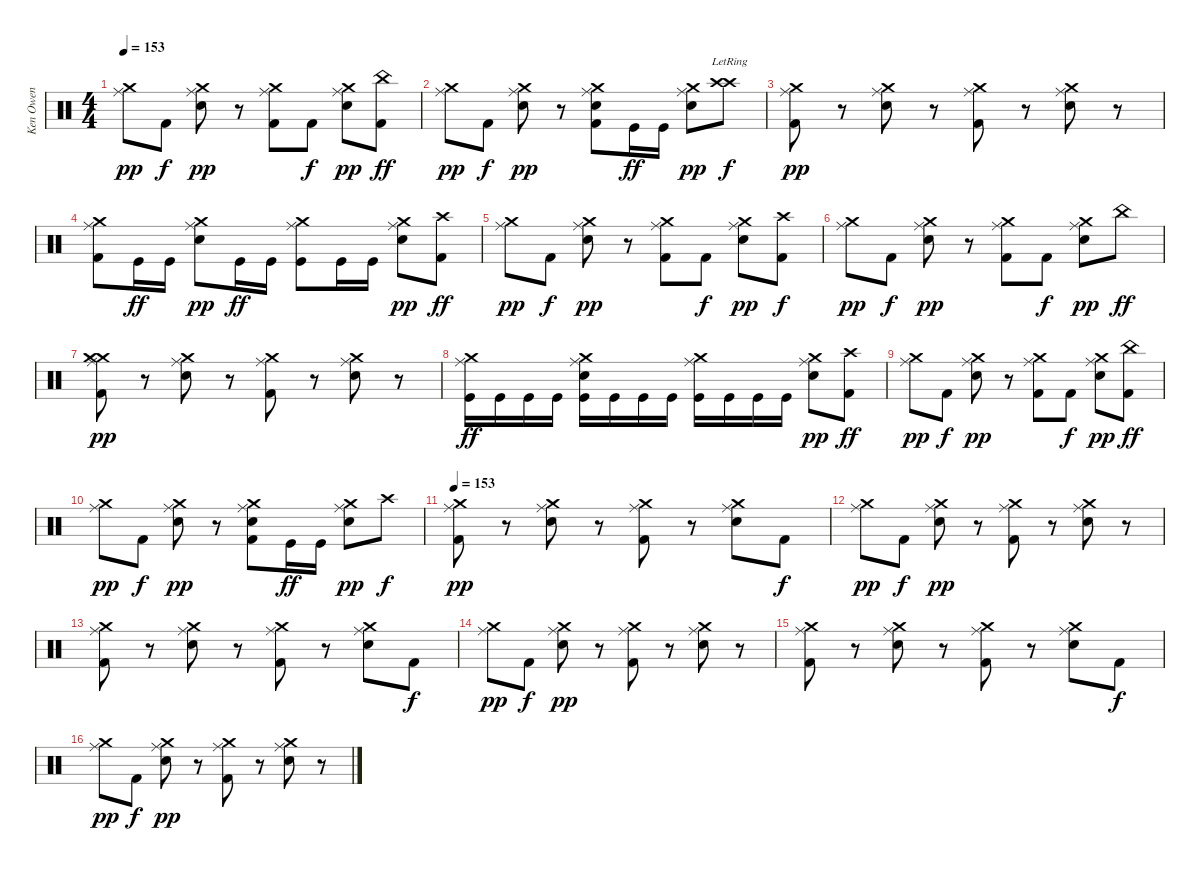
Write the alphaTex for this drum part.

\track ("Ken Owen" "Ken Owen") {instrument percussion}
\staff {score}
\articulation defaults
\ts (4 4)
\tempo 153
\clef neutral
\ks c
("Crash medium (hit)" "Ride (middle)").8{dy pp} "Kick (hit) 2".8{dy f} ("Crash medium (hit)" "Ride (middle)" "Electric Snare (hit)").8{dy pp} r.8 ("Crash medium (hit)" "Ride (middle)" "Kick (hit) 2").8 "Kick (hit) 2".8{dy f} ("Crash medium (hit)" "Ride (middle)" "Electric Snare (hit)").8{dy pp} ("Kick (hit) 2" "China (hit)").8{dy ff} |
("Crash medium (hit)" "Ride (middle)").8{dy pp} "Kick (hit) 2".8{dy f} ("Crash medium (hit)" "Ride (middle)" "Electric Snare (hit)").8{dy pp} r.8 ("Crash medium (hit)" "Ride (middle)" "Kick (hit) 2" "Electric Snare (hit)").8 "Kick (hit)".16{dy ff} "Kick (hit)".16 ("Crash medium (hit)" "Ride (middle)" "Electric Snare (hit)").8{dy pp} ("Crash high (hit)"{lr} "Crash high (hit)"{lr}).8{dy f} |
("Crash medium (hit)" "Ride (middle)" "Kick (hit) 2").8{dy pp} r.8 ("Crash medium (hit)" "Ride (middle)" "Electric Snare (hit)").8 r.8 ("Crash medium (hit)" "Ride (middle)" "Kick (hit) 2").8 r.8 ("Crash medium (hit)" "Ride (middle)" "Electric Snare (hit)").8 r.8 |
("Crash medium (hit)" "Ride (middle)" "Kick (hit) 2").8 "Kick (hit)".16{dy ff} "Kick (hit)".16 ("Crash medium (hit)" "Ride (middle)" "Electric Snare (hit)").8{dy pp} "Kick (hit)".16{dy ff} "Kick (hit)".16 ("Crash medium (hit)" "Ride (middle)" "Kick (hit)").8 "Kick (hit)".16 "Kick (hit)".16 ("Crash medium (hit)" "Ride (middle)" "Electric Snare (hit)").8{dy pp} ("Kick (hit) 2" "Crash high (hit)").8{dy ff} |
("Crash medium (hit)" "Ride (middle)").8{dy pp} "Kick (hit) 2".8{dy f} ("Crash medium (hit)" "Ride (middle)" "Electric Snare (hit)").8{dy pp} r.8 ("Crash medium (hit)" "Ride (middle)" "Kick (hit) 2").8 "Kick (hit) 2".8{dy f} ("Crash medium (hit)" "Ride (middle)" "Electric Snare (hit)").8{dy pp} ("Kick (hit) 2" "Crash high (hit)").8{dy f} |
("Crash medium (hit)" "Ride (middle)").8{dy pp} "Kick (hit) 2".8{dy f} ("Crash medium (hit)" "Ride (middle)" "Electric Snare (hit)").8{dy pp} r.8 ("Crash medium (hit)" "Ride (middle)" "Kick (hit) 2").8 "Kick (hit) 2".8{dy f} ("Crash medium (hit)" "Ride (middle)" "Electric Snare (hit)").8{dy pp} "China (hit)".8{dy ff} |
("Crash medium (hit)" "Ride (middle)" "Kick (hit) 2" "Crash medium (hit)").8{dy pp} r.8 ("Crash medium (hit)" "Ride (middle)" "Electric Snare (hit)").8 r.8 ("Crash medium (hit)" "Ride (middle)" "Kick (hit) 2").8 r.8 ("Crash medium (hit)" "Ride (middle)" "Electric Snare (hit)").8 r.8 |
("Crash medium (hit)" "Ride (middle)" "Kick (hit)").16{dy ff} "Kick (hit)".16 "Kick (hit)".16 "Kick (hit)".16 ("Crash medium (hit)" "Ride (middle)" "Kick (hit)" "Electric Snare (hit)").16 "Kick (hit)".16 "Kick (hit)".16 "Kick (hit)".16 ("Crash medium (hit)" "Ride (middle)" "Kick (hit)").16 "Kick (hit)".16 "Kick (hit)".16 "Kick (hit)".16 ("Crash medium (hit)" "Ride (middle)" "Electric Snare (hit)").8{dy pp} ("Kick (hit) 2" "Crash high (hit)").8{dy ff} |
("Crash medium (hit)" "Ride (middle)").8{dy pp} "Kick (hit) 2".8{dy f} ("Crash medium (hit)" "Ride (middle)" "Electric Snare (hit)").8{dy pp} r.8 ("Crash medium (hit)" "Ride (middle)" "Kick (hit) 2").8 "Kick (hit) 2".8{dy f} ("Crash medium (hit)" "Ride (middle)" "Electric Snare (hit)").8{dy pp} ("Kick (hit) 2" "China (hit)").8{dy ff} |
("Crash medium (hit)" "Ride (middle)").8{dy pp} "Kick (hit) 2".8{dy f} ("Crash medium (hit)" "Ride (middle)" "Electric Snare (hit)").8{dy pp} r.8 ("Crash medium (hit)" "Ride (middle)" "Kick (hit) 2" "Electric Snare (hit)").8 "Kick (hit)".16{dy ff} "Kick (hit)".16 ("Crash medium (hit)" "Ride (middle)" "Electric Snare (hit)").8{dy pp} "Crash high (hit)".8{dy f} |
\tempo 153
("Crash medium (hit)" "Ride (middle)" "Kick (hit) 2").8{dy pp} r.8 ("Crash medium (hit)" "Ride (middle)" "Electric Snare (hit)").8 r.8 ("Crash medium (hit)" "Ride (middle)" "Kick (hit) 2").8 r.8 ("Crash medium (hit)" "Ride (middle)" "Electric Snare (hit)").8 "Kick (hit) 2".8{dy f} |
("Crash medium (hit)" "Ride (middle)").8{dy pp} "Kick (hit) 2".8{dy f} ("Crash medium (hit)" "Ride (middle)" "Electric Snare (hit)").8{dy pp} r.8 ("Crash medium (hit)" "Ride (middle)" "Kick (hit) 2").8 r.8 ("Crash medium (hit)" "Ride (middle)" "Electric Snare (hit)").8 r.8 |
("Crash medium (hit)" "Ride (middle)" "Kick (hit) 2").8 r.8 ("Crash medium (hit)" "Ride (middle)" "Electric Snare (hit)").8 r.8 ("Crash medium (hit)" "Ride (middle)" "Kick (hit) 2").8 r.8 ("Crash medium (hit)" "Ride (middle)" "Electric Snare (hit)").8 "Kick (hit) 2".8{dy f} |
("Crash medium (hit)" "Ride (middle)").8{dy pp} "Kick (hit) 2".8{dy f} ("Crash medium (hit)" "Ride (middle)" "Electric Snare (hit)").8{dy pp} r.8 ("Crash medium (hit)" "Ride (middle)" "Kick (hit) 2").8 r.8 ("Crash medium (hit)" "Ride (middle)" "Electric Snare (hit)").8 r.8 |
("Crash medium (hit)" "Ride (middle)" "Kick (hit) 2").8 r.8 ("Crash medium (hit)" "Ride (middle)" "Electric Snare (hit)").8 r.8 ("Crash medium (hit)" "Ride (middle)" "Kick (hit) 2").8 r.8 ("Crash medium (hit)" "Ride (middle)" "Electric Snare (hit)").8 "Kick (hit) 2".8{dy f} |
("Crash medium (hit)" "Ride (middle)").8{dy pp} "Kick (hit) 2".8{dy f} ("Crash medium (hit)" "Ride (middle)" "Electric Snare (hit)").8{dy pp} r.8 ("Crash medium (hit)" "Ride (middle)" "Kick (hit) 2").8 r.8 ("Crash medium (hit)" "Ride (middle)" "Electric Snare (hit)").8 r.8
